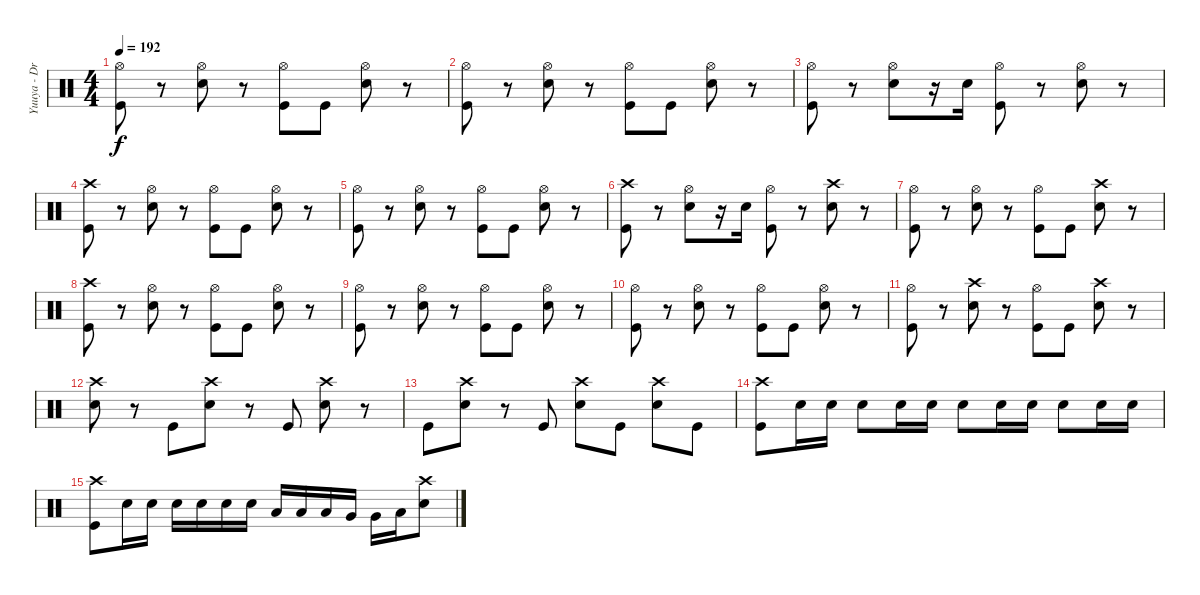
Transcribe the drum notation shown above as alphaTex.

\track ("Yuuya - Drums" "Yuuya - Dr") {instrument percussion}
\staff {score}
\articulation defaults
\ts (4 4)
\tempo 192
\clef neutral
\ks c
("Kick (hit)" "Hi-Hat (open)").8{dy f} r.8 ("Electric Snare (hit)" "Hi-Hat (open)").8 r.8 ("Kick (hit)" "Hi-Hat (open)").8 "Kick (hit)".8 ("Electric Snare (hit)" "Hi-Hat (open)").8 r.8 |
("Kick (hit)" "Hi-Hat (open)").8 r.8 ("Electric Snare (hit)" "Hi-Hat (open)").8 r.8 ("Kick (hit)" "Hi-Hat (open)").8 "Kick (hit)".8 ("Electric Snare (hit)" "Hi-Hat (open)").8 r.8 |
("Kick (hit)" "Hi-Hat (open)").8 r.8 ("Electric Snare (hit)" "Hi-Hat (open)").8 r.16 "Electric Snare (hit)".16 ("Kick (hit)" "Hi-Hat (open)").8 r.8 ("Electric Snare (hit)" "Hi-Hat (open)").8 r.8 |
("Kick (hit)" "Crash high (hit)").8 r.8 ("Electric Snare (hit)" "Hi-Hat (open)").8 r.8 ("Kick (hit)" "Hi-Hat (open)").8 "Kick (hit)".8 ("Electric Snare (hit)" "Hi-Hat (open)").8 r.8 |
("Kick (hit)" "Hi-Hat (open)").8 r.8 ("Electric Snare (hit)" "Hi-Hat (open)").8 r.8 ("Kick (hit)" "Hi-Hat (open)").8 "Kick (hit)".8 ("Electric Snare (hit)" "Hi-Hat (open)").8 r.8 |
("Kick (hit)" "Crash high (hit)").8 r.8 ("Electric Snare (hit)" "Hi-Hat (open)").8 r.16 "Electric Snare (hit)".16 ("Kick (hit)" "Hi-Hat (open)").8 r.8 ("Electric Snare (hit)" "Crash high (hit)").8 r.8 |
("Kick (hit)" "Hi-Hat (open)").8 r.8 ("Electric Snare (hit)" "Hi-Hat (open)").8 r.8 ("Kick (hit)" "Hi-Hat (open)").8 "Kick (hit)".8 ("Electric Snare (hit)" "Crash high (hit)").8 r.8 |
("Kick (hit)" "Crash high (hit)").8 r.8 ("Electric Snare (hit)" "Hi-Hat (open)").8 r.8 ("Kick (hit)" "Hi-Hat (open)").8 "Kick (hit)".8 ("Electric Snare (hit)" "Hi-Hat (open)").8 r.8 |
("Kick (hit)" "Hi-Hat (open)").8 r.8 ("Electric Snare (hit)" "Hi-Hat (open)").8 r.8 ("Kick (hit)" "Hi-Hat (open)").8 "Kick (hit)".8 ("Electric Snare (hit)" "Hi-Hat (open)").8 r.8 |
("Kick (hit)" "Hi-Hat (open)").8 r.8 ("Electric Snare (hit)" "Hi-Hat (open)").8 r.8 ("Kick (hit)" "Hi-Hat (open)").8 "Kick (hit)".8 ("Electric Snare (hit)" "Hi-Hat (open)").8 r.8 |
("Kick (hit)" "Hi-Hat (open)").8 r.8 ("Electric Snare (hit)" "Crash high (hit)").8 r.8 ("Kick (hit)" "Hi-Hat (open)").8 "Kick (hit)".8 ("Electric Snare (hit)" "Crash high (hit)").8 r.8 |
("Electric Snare (hit)" "Crash high (hit)").8 r.8 "Kick (hit)".8 ("Electric Snare (hit)" "Crash high (hit)").8 r.8 "Kick (hit)".8 ("Electric Snare (hit)" "Crash high (hit)").8 r.8 |
"Kick (hit)".8 ("Electric Snare (hit)" "Crash high (hit)").8 r.8 "Kick (hit)".8 ("Electric Snare (hit)" "Crash high (hit)").8 "Kick (hit)".8 ("Electric Snare (hit)" "Crash high (hit)").8 "Kick (hit)".8 |
("Kick (hit)" "Crash high (hit)").8 "Electric Snare (hit)".16 "Electric Snare (hit)".16 "Electric Snare (hit)".8 "Electric Snare (hit)".16 "Electric Snare (hit)".16 "Electric Snare (hit)".8 "Electric Snare (hit)".16 "Electric Snare (hit)".16 "Electric Snare (hit)".8 "Electric Snare (hit)".16 "Electric Snare (hit)".16 |
("Kick (hit)" "Crash high (hit)").8 "Electric Snare (hit)".16 "Electric Snare (hit)".16 "Electric Snare (hit)".16 "Electric Snare (hit)".16 "Electric Snare (hit)".16 "Electric Snare (hit)".16 "Low Tom (hit)".16 "Low Tom (hit)".16 "Low Tom (hit)".16 "Very Low Tom (hit)".16 "Very Low Tom (hit)".16 "Low Floor Tom (hit)".16 ("Electric Snare (hit)" "Crash high (hit)").8
